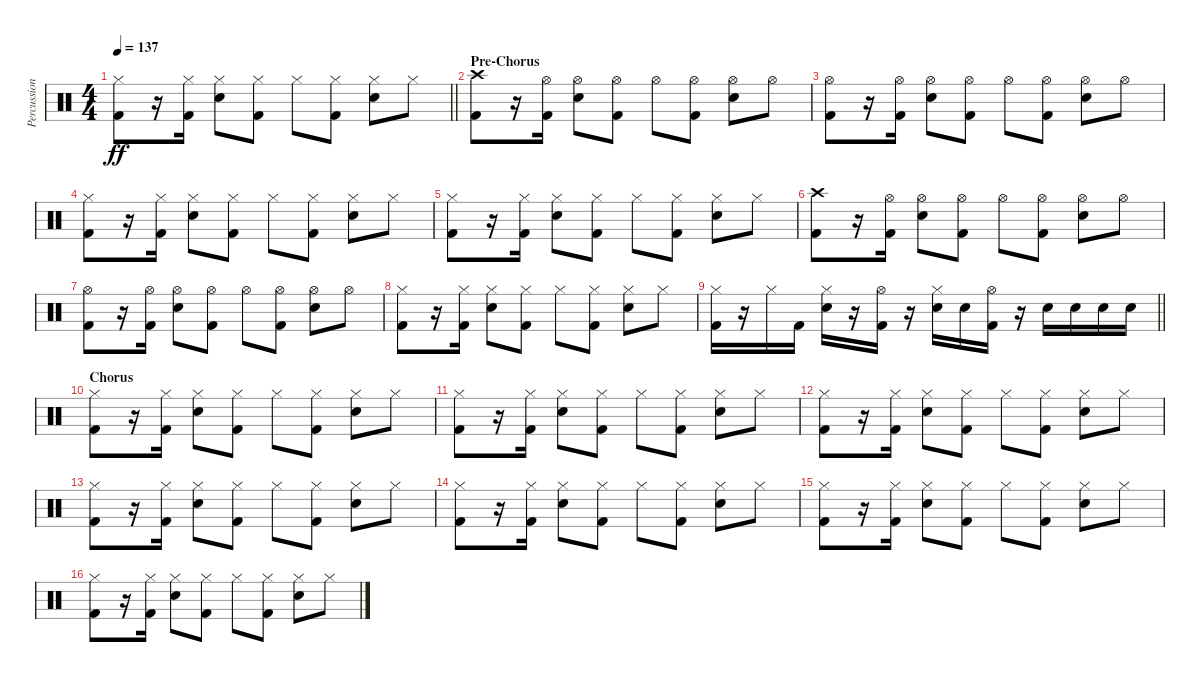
\track ("Percussion" "Percussion") {instrument percussion}
\staff {score}
\articulation defaults
\ts (4 4)
\tempo 137
\clef neutral
\barLineRight lightlight
\ks c
("Hi-Hat (closed)" "Kick (hit) 2").8{dy ff} r.16 ("Hi-Hat (closed)" "Kick (hit) 2").16 ("Hi-Hat (closed)" "Electric Snare (hit)").8 ("Hi-Hat (closed)" "Kick (hit) 2").8 "Hi-Hat (closed)".8 ("Hi-Hat (closed)" "Kick (hit) 2").8 ("Hi-Hat (closed)" "Electric Snare (hit)").8 "Hi-Hat (closed)".8 |
\section ("" "Pre-Chorus")
("Crash high (hit)" "Kick (hit) 2").8 r.16 ("Hi-Hat (open)" "Kick (hit) 2").16 ("Hi-Hat (open)" "Electric Snare (hit)").8 ("Hi-Hat (open)" "Kick (hit) 2").8 "Hi-Hat (open)".8 ("Hi-Hat (open)" "Kick (hit) 2").8 ("Hi-Hat (open)" "Electric Snare (hit)").8 "Hi-Hat (open)".8 |
("Hi-Hat (open)" "Kick (hit) 2").8 r.16 ("Hi-Hat (open)" "Kick (hit) 2").16 ("Hi-Hat (open)" "Electric Snare (hit)").8 ("Hi-Hat (open)" "Kick (hit) 2").8 "Hi-Hat (open)".8 ("Hi-Hat (open)" "Kick (hit) 2").8 ("Hi-Hat (open)" "Electric Snare (hit)").8 "Hi-Hat (open)".8 |
("Hi-Hat (closed)" "Kick (hit) 2").8 r.16 ("Hi-Hat (closed)" "Kick (hit) 2").16 ("Hi-Hat (closed)" "Electric Snare (hit)").8 ("Hi-Hat (closed)" "Kick (hit) 2").8 "Hi-Hat (closed)".8 ("Hi-Hat (closed)" "Kick (hit) 2").8 ("Hi-Hat (closed)" "Electric Snare (hit)").8 "Hi-Hat (closed)".8 |
("Hi-Hat (closed)" "Kick (hit) 2").8 r.16 ("Hi-Hat (closed)" "Kick (hit) 2").16 ("Hi-Hat (closed)" "Electric Snare (hit)").8 ("Hi-Hat (closed)" "Kick (hit) 2").8 "Hi-Hat (closed)".8 ("Hi-Hat (closed)" "Kick (hit) 2").8 ("Hi-Hat (closed)" "Electric Snare (hit)").8 "Hi-Hat (closed)".8 |
("Crash high (hit)" "Kick (hit) 2").8 r.16 ("Hi-Hat (open)" "Kick (hit) 2").16 ("Hi-Hat (open)" "Electric Snare (hit)").8 ("Hi-Hat (open)" "Kick (hit) 2").8 "Hi-Hat (open)".8 ("Hi-Hat (open)" "Kick (hit) 2").8 ("Hi-Hat (open)" "Electric Snare (hit)").8 "Hi-Hat (open)".8 |
("Hi-Hat (open)" "Kick (hit) 2").8 r.16 ("Hi-Hat (open)" "Kick (hit) 2").16 ("Hi-Hat (open)" "Electric Snare (hit)").8 ("Hi-Hat (open)" "Kick (hit) 2").8 "Hi-Hat (open)".8 ("Hi-Hat (open)" "Kick (hit) 2").8 ("Hi-Hat (open)" "Electric Snare (hit)").8 "Hi-Hat (open)".8 |
("Hi-Hat (closed)" "Kick (hit) 2").8 r.16 ("Hi-Hat (closed)" "Kick (hit) 2").16 ("Hi-Hat (closed)" "Electric Snare (hit)").8 ("Hi-Hat (closed)" "Kick (hit) 2").8 "Hi-Hat (closed)".8 ("Hi-Hat (closed)" "Kick (hit) 2").8 ("Hi-Hat (closed)" "Electric Snare (hit)").8 "Hi-Hat (closed)".8 |
\barLineRight lightlight
("Hi-Hat (closed)" "Kick (hit) 2").16 r.16 "Hi-Hat (closed)".16 "Kick (hit) 2".16 ("Hi-Hat (closed)" "Electric Snare (hit)").16 r.16 ("Hi-Hat (open)" "Kick (hit) 2").16 r.16 ("Hi-Hat (closed)" "Electric Snare (hit)").16 "Electric Snare (hit)".16 ("Hi-Hat (open)" "Kick (hit) 2").16 r.16 "Electric Snare (hit)".16 "Electric Snare (hit)".16 "Electric Snare (hit)".16 "Electric Snare (hit)".16 |
\section ("" "Chorus")
("Hi-Hat (closed)" "Kick (hit) 2").8 r.16 ("Hi-Hat (closed)" "Kick (hit) 2").16 ("Hi-Hat (closed)" "Electric Snare (hit)").8 ("Hi-Hat (closed)" "Kick (hit) 2").8 "Hi-Hat (closed)".8 ("Hi-Hat (closed)" "Kick (hit) 2").8 ("Hi-Hat (closed)" "Electric Snare (hit)").8 "Hi-Hat (closed)".8 |
("Hi-Hat (closed)" "Kick (hit) 2").8 r.16 ("Hi-Hat (closed)" "Kick (hit) 2").16 ("Hi-Hat (closed)" "Electric Snare (hit)").8 ("Hi-Hat (closed)" "Kick (hit) 2").8 "Hi-Hat (closed)".8 ("Hi-Hat (closed)" "Kick (hit) 2").8 ("Hi-Hat (closed)" "Electric Snare (hit)").8 "Hi-Hat (closed)".8 |
("Hi-Hat (closed)" "Kick (hit) 2").8 r.16 ("Hi-Hat (closed)" "Kick (hit) 2").16 ("Hi-Hat (closed)" "Electric Snare (hit)").8 ("Hi-Hat (closed)" "Kick (hit) 2").8 "Hi-Hat (closed)".8 ("Hi-Hat (closed)" "Kick (hit) 2").8 ("Hi-Hat (closed)" "Electric Snare (hit)").8 "Hi-Hat (closed)".8 |
("Hi-Hat (closed)" "Kick (hit) 2").8 r.16 ("Hi-Hat (closed)" "Kick (hit) 2").16 ("Hi-Hat (closed)" "Electric Snare (hit)").8 ("Hi-Hat (closed)" "Kick (hit) 2").8 "Hi-Hat (closed)".8 ("Hi-Hat (closed)" "Kick (hit) 2").8 ("Hi-Hat (closed)" "Electric Snare (hit)").8 "Hi-Hat (closed)".8 |
("Hi-Hat (closed)" "Kick (hit) 2").8 r.16 ("Hi-Hat (closed)" "Kick (hit) 2").16 ("Hi-Hat (closed)" "Electric Snare (hit)").8 ("Hi-Hat (closed)" "Kick (hit) 2").8 "Hi-Hat (closed)".8 ("Hi-Hat (closed)" "Kick (hit) 2").8 ("Hi-Hat (closed)" "Electric Snare (hit)").8 "Hi-Hat (closed)".8 |
("Hi-Hat (closed)" "Kick (hit) 2").8 r.16 ("Hi-Hat (closed)" "Kick (hit) 2").16 ("Hi-Hat (closed)" "Electric Snare (hit)").8 ("Hi-Hat (closed)" "Kick (hit) 2").8 "Hi-Hat (closed)".8 ("Hi-Hat (closed)" "Kick (hit) 2").8 ("Hi-Hat (closed)" "Electric Snare (hit)").8 "Hi-Hat (closed)".8 |
("Hi-Hat (closed)" "Kick (hit) 2").8 r.16 ("Hi-Hat (closed)" "Kick (hit) 2").16 ("Hi-Hat (closed)" "Electric Snare (hit)").8 ("Hi-Hat (closed)" "Kick (hit) 2").8 "Hi-Hat (closed)".8 ("Hi-Hat (closed)" "Kick (hit) 2").8 ("Hi-Hat (closed)" "Electric Snare (hit)").8 "Hi-Hat (closed)".8
